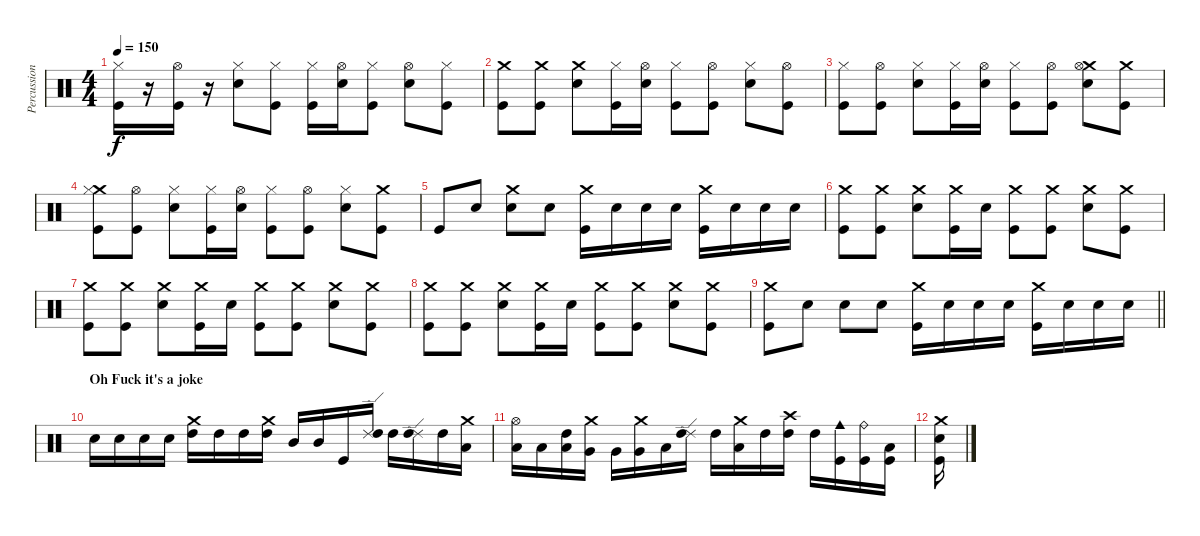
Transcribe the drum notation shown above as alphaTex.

\track ("Percussion" "Percussion") {instrument percussion}
\staff {score}
\articulation defaults
\ts (4 4)
\tempo 150
\clef neutral
\ks c
("Hi-Hat (closed)" "Kick (hit)").16{dy f} r.16 ("Hi-Hat (open)" "Kick (hit)").16 r.16 ("Hi-Hat (closed)" "Electric Snare (hit)").8 ("Hi-Hat (closed)" "Kick (hit)").8 ("Hi-Hat (closed)" "Kick (hit)").16 ("Hi-Hat (open)" "Electric Snare (hit)").16 ("Hi-Hat (closed)" "Kick (hit)").8 ("Hi-Hat (open)" "Electric Snare (hit)").8 ("Hi-Hat (closed)" "Kick (hit)").8 |
("Crash medium (hit)" "Kick (hit)").8 ("Crash medium (hit)" "Kick (hit)").8 ("Crash medium (hit)" "Electric Snare (hit)").8 ("Hi-Hat (closed)" "Kick (hit)").16 ("Hi-Hat (open)" "Electric Snare (hit)").16 ("Hi-Hat (closed)" "Kick (hit)").8 ("Hi-Hat (open)" "Kick (hit)").8 ("Hi-Hat (closed)" "Electric Snare (hit)").8 ("Hi-Hat (open)" "Kick (hit)").8 |
("Hi-Hat (closed)" "Kick (hit)").8 ("Hi-Hat (open)" "Kick (hit)").8 ("Hi-Hat (closed)" "Electric Snare (hit)").8 ("Hi-Hat (closed)" "Kick (hit)").16 ("Hi-Hat (open)" "Electric Snare (hit)").16 ("Hi-Hat (closed)" "Kick (hit)").8 ("Hi-Hat (open)" "Kick (hit)").8 ("Crash medium (hit)" "Hi-Hat (open)" "Electric Snare (hit)").8 ("Crash medium (hit)" "Kick (hit)").8 |
("Crash medium (hit)" "Hi-Hat (closed)" "Kick (hit)").8 ("Hi-Hat (open)" "Kick (hit)").8 ("Hi-Hat (closed)" "Electric Snare (hit)").8 ("Hi-Hat (closed)" "Kick (hit)").16 ("Hi-Hat (open)" "Electric Snare (hit)").16 ("Hi-Hat (closed)" "Kick (hit)").8 ("Hi-Hat (open)" "Kick (hit)").8 ("Hi-Hat (closed)" "Electric Snare (hit)").8 ("Crash medium (hit)" "Kick (hit)").8 |
"Kick (hit)".8 "Electric Snare (hit)".8 ("Crash medium (hit)" "Electric Snare (hit)").8 "Electric Snare (hit)".8 ("Crash medium (hit)" "Kick (hit)").16 "Electric Snare (hit)".16 "Electric Snare (hit)".16 "Electric Snare (hit)".16 ("Crash medium (hit)" "Kick (hit)").16 "Electric Snare (hit)".16 "Electric Snare (hit)".16 "Electric Snare (hit)".16 |
("Crash medium (hit)" "Kick (hit)").8 ("Crash medium (hit)" "Kick (hit)").8 ("Crash medium (hit)" "Electric Snare (hit)").8 ("Crash medium (hit)" "Kick (hit)").16 "Electric Snare (hit)".16 ("Crash medium (hit)" "Kick (hit)").8 ("Crash medium (hit)" "Kick (hit)").8 ("Crash medium (hit)" "Electric Snare (hit)").8 ("Crash medium (hit)" "Kick (hit)").8 |
("Crash medium (hit)" "Kick (hit)").8 ("Crash medium (hit)" "Kick (hit)").8 ("Crash medium (hit)" "Electric Snare (hit)").8 ("Crash medium (hit)" "Kick (hit)").16 "Electric Snare (hit)".16 ("Crash medium (hit)" "Kick (hit)").8 ("Crash medium (hit)" "Kick (hit)").8 ("Crash medium (hit)" "Electric Snare (hit)").8 ("Crash medium (hit)" "Kick (hit)").8 |
("Crash medium (hit)" "Kick (hit)").8 ("Crash medium (hit)" "Kick (hit)").8 ("Crash medium (hit)" "Electric Snare (hit)").8 ("Crash medium (hit)" "Kick (hit)").16 "Electric Snare (hit)".16 ("Crash medium (hit)" "Kick (hit)").8 ("Crash medium (hit)" "Kick (hit)").8 ("Crash medium (hit)" "Electric Snare (hit)").8 ("Crash medium (hit)" "Kick (hit)").8 |
\barLineRight lightlight
("Crash medium (hit)" "Kick (hit)").8 "Electric Snare (hit)".8 "Electric Snare (hit)".8 "Electric Snare (hit)".8 ("Crash medium (hit)" "Kick (hit)").16 "Electric Snare (hit)".16 "Electric Snare (hit)".16 "Electric Snare (hit)".16 ("Crash medium (hit)" "Kick (hit)").16 "Electric Snare (hit)".16 "Electric Snare (hit)".16 "Electric Snare (hit)".16 |
\section ("" "Oh Fuck it's a joke")
"Electric Snare (hit)".16 "Electric Snare (hit)".16 "Electric Snare (hit)".16 "Electric Snare (hit)".16 ("Crash medium (hit)" "High Tom (hit)").16 "High Tom (hit)".16 "High Tom (hit)".16 ("Crash medium (hit)" "High Tom (hit)").16 "Mid Tom (hit)".16 "Mid Tom (hit)".16 "Kick (hit)".16 ("Ride (edge) 2" "High Tom (hit)").16 "High Tom (hit)".16 ("Ride (edge) 2" "High Tom (hit)").16 "High Tom (hit)".16 ("Crash medium (hit)" "Low Tom (hit)").16 |
("Hi-Hat (open)" "Low Tom (hit)").16 "Low Tom (hit)".16 ("High Tom (hit)" "Low Tom (hit)").16 ("Crash medium (hit)" "Very Low Tom (hit)").16 "Very Low Tom (hit)".16 ("Crash medium (hit)" "Very Low Tom (hit)").16 "Low Tom (hit)".16 ("Ride (edge) 2" "High Tom (hit)").16 "High Tom (hit)".16 ("Crash medium (hit)" "Low Tom (hit)").16 "High Tom (hit)".16 ("Crash high (hit)" "High Tom (hit)").16 "High Tom (hit)".16 ("Cowbell medium (hit)" "Kick (hit)").16 ("Ride (bell)" "Kick (hit)").16 ("Low Tom (hit)" "Kick (hit)").16 |
("Crash medium (hit)" "Kick (hit)" "Electric Snare (hit)").16
